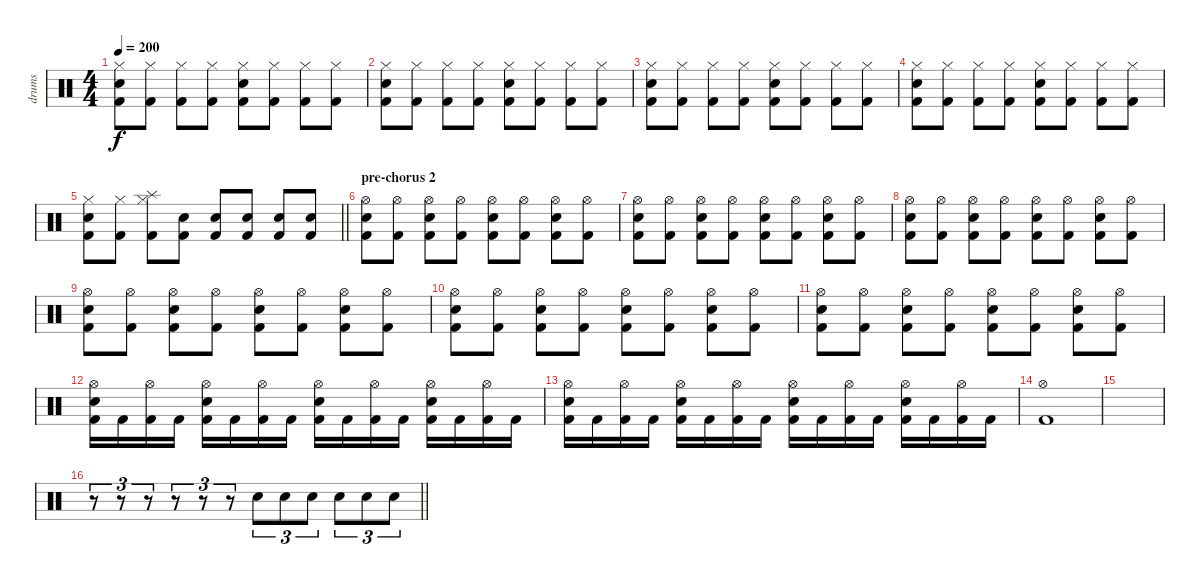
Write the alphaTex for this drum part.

\track ("drums" "drums") {instrument percussion}
\staff {score}
\articulation defaults
\ts (4 4)
\tempo 200
\clef neutral
\ks c
("Hi-Hat (closed)" "Snare (hit) 2" "Kick (hit) 2").8{dy f} ("Hi-Hat (closed)" "Kick (hit) 2").8 ("Hi-Hat (closed)" "Kick (hit) 2").8 ("Hi-Hat (closed)" "Kick (hit) 2").8 ("Hi-Hat (closed)" "Snare (hit) 2" "Kick (hit) 2").8 ("Hi-Hat (closed)" "Kick (hit) 2").8 ("Hi-Hat (closed)" "Kick (hit) 2").8 ("Hi-Hat (closed)" "Kick (hit) 2").8 |
("Hi-Hat (closed)" "Snare (hit) 2" "Kick (hit) 2").8 ("Hi-Hat (closed)" "Kick (hit) 2").8 ("Hi-Hat (closed)" "Kick (hit) 2").8 ("Hi-Hat (closed)" "Kick (hit) 2").8 ("Hi-Hat (closed)" "Snare (hit) 2" "Kick (hit) 2").8 ("Hi-Hat (closed)" "Kick (hit) 2").8 ("Hi-Hat (closed)" "Kick (hit) 2").8 ("Hi-Hat (closed)" "Kick (hit) 2").8 |
("Hi-Hat (closed)" "Snare (hit) 2" "Kick (hit) 2").8 ("Hi-Hat (closed)" "Kick (hit) 2").8 ("Hi-Hat (closed)" "Kick (hit) 2").8 ("Hi-Hat (closed)" "Kick (hit) 2").8 ("Hi-Hat (closed)" "Snare (hit) 2" "Kick (hit) 2").8 ("Hi-Hat (closed)" "Kick (hit) 2").8 ("Hi-Hat (closed)" "Kick (hit) 2").8 ("Hi-Hat (closed)" "Kick (hit) 2").8 |
("Hi-Hat (closed)" "Snare (hit) 2" "Kick (hit) 2").8 ("Hi-Hat (closed)" "Kick (hit) 2").8 ("Hi-Hat (closed)" "Kick (hit) 2").8 ("Hi-Hat (closed)" "Kick (hit) 2").8 ("Hi-Hat (closed)" "Snare (hit) 2" "Kick (hit) 2").8 ("Hi-Hat (closed)" "Kick (hit) 2").8 ("Hi-Hat (closed)" "Kick (hit) 2").8 ("Hi-Hat (closed)" "Kick (hit) 2").8 |
\barLineRight lightlight
("Hi-Hat (closed)" "Snare (hit) 2" "Kick (hit) 2").8 ("Hi-Hat (closed)" "Kick (hit) 2").8 ("Splash (hit)" "Hi-Hat (closed)" "Kick (hit) 2").8 ("Snare (hit) 2" "Kick (hit) 2").8 ("Snare (hit) 2" "Kick (hit) 2").8 ("Snare (hit) 2" "Kick (hit) 2").8 ("Snare (hit) 2" "Kick (hit) 2").8 ("Snare (hit) 2" "Kick (hit) 2").8 |
\section ("" "pre-chorus 2")
("Hi-Hat (open)" "Snare (hit) 2" "Kick (hit) 2").8 ("Hi-Hat (open)" "Kick (hit) 2").8 ("Hi-Hat (open)" "Snare (hit) 2" "Kick (hit) 2").8 ("Hi-Hat (open)" "Kick (hit) 2").8 ("Hi-Hat (open)" "Snare (hit) 2" "Kick (hit) 2").8 ("Hi-Hat (open)" "Kick (hit) 2").8 ("Hi-Hat (open)" "Snare (hit) 2" "Kick (hit) 2").8 ("Hi-Hat (open)" "Kick (hit) 2").8 |
("Hi-Hat (open)" "Snare (hit) 2" "Kick (hit) 2").8 ("Hi-Hat (open)" "Kick (hit) 2").8 ("Hi-Hat (open)" "Snare (hit) 2" "Kick (hit) 2").8 ("Hi-Hat (open)" "Kick (hit) 2").8 ("Hi-Hat (open)" "Snare (hit) 2" "Kick (hit) 2").8 ("Hi-Hat (open)" "Kick (hit) 2").8 ("Hi-Hat (open)" "Snare (hit) 2" "Kick (hit) 2").8 ("Hi-Hat (open)" "Kick (hit) 2").8 |
("Hi-Hat (open)" "Snare (hit) 2" "Kick (hit) 2").8 ("Hi-Hat (open)" "Kick (hit) 2").8 ("Hi-Hat (open)" "Snare (hit) 2" "Kick (hit) 2").8 ("Hi-Hat (open)" "Kick (hit) 2").8 ("Hi-Hat (open)" "Snare (hit) 2" "Kick (hit) 2").8 ("Hi-Hat (open)" "Kick (hit) 2").8 ("Hi-Hat (open)" "Snare (hit) 2" "Kick (hit) 2").8 ("Hi-Hat (open)" "Kick (hit) 2").8 |
("Hi-Hat (open)" "Snare (hit) 2" "Kick (hit) 2").8 ("Hi-Hat (open)" "Kick (hit) 2").8 ("Hi-Hat (open)" "Snare (hit) 2" "Kick (hit) 2").8 ("Hi-Hat (open)" "Kick (hit) 2").8 ("Hi-Hat (open)" "Snare (hit) 2" "Kick (hit) 2").8 ("Hi-Hat (open)" "Kick (hit) 2").8 ("Hi-Hat (open)" "Snare (hit) 2" "Kick (hit) 2").8 ("Hi-Hat (open)" "Kick (hit) 2").8 |
("Hi-Hat (open)" "Snare (hit) 2" "Kick (hit) 2").8 ("Hi-Hat (open)" "Kick (hit) 2").8 ("Hi-Hat (open)" "Snare (hit) 2" "Kick (hit) 2").8 ("Hi-Hat (open)" "Kick (hit) 2").8 ("Hi-Hat (open)" "Snare (hit) 2" "Kick (hit) 2").8 ("Hi-Hat (open)" "Kick (hit) 2").8 ("Hi-Hat (open)" "Snare (hit) 2" "Kick (hit) 2").8 ("Hi-Hat (open)" "Kick (hit) 2").8 |
("Hi-Hat (open)" "Snare (hit) 2" "Kick (hit) 2").8 ("Hi-Hat (open)" "Kick (hit) 2").8 ("Hi-Hat (open)" "Snare (hit) 2" "Kick (hit) 2").8 ("Hi-Hat (open)" "Kick (hit) 2").8 ("Hi-Hat (open)" "Snare (hit) 2" "Kick (hit) 2").8 ("Hi-Hat (open)" "Kick (hit) 2").8 ("Hi-Hat (open)" "Snare (hit) 2" "Kick (hit) 2").8 ("Hi-Hat (open)" "Kick (hit) 2").8 |
("Hi-Hat (open)" "Snare (hit) 2" "Kick (hit) 2").16 "Kick (hit) 2".16 ("Hi-Hat (open)" "Kick (hit) 2").16 "Kick (hit) 2".16 ("Hi-Hat (open)" "Snare (hit) 2" "Kick (hit) 2").16 "Kick (hit) 2".16 ("Hi-Hat (open)" "Kick (hit) 2").16 "Kick (hit) 2".16 ("Hi-Hat (open)" "Snare (hit) 2" "Kick (hit) 2").16 "Kick (hit) 2".16 ("Hi-Hat (open)" "Kick (hit) 2").16 "Kick (hit) 2".16 ("Hi-Hat (open)" "Snare (hit) 2" "Kick (hit) 2").16 "Kick (hit) 2".16 ("Hi-Hat (open)" "Kick (hit) 2").16 "Kick (hit) 2".16 |
("Hi-Hat (open)" "Snare (hit) 2" "Kick (hit) 2").16 "Kick (hit) 2".16 ("Hi-Hat (open)" "Kick (hit) 2").16 "Kick (hit) 2".16 ("Hi-Hat (open)" "Snare (hit) 2" "Kick (hit) 2").16 "Kick (hit) 2".16 ("Hi-Hat (open)" "Kick (hit) 2").16 "Kick (hit) 2".16 ("Hi-Hat (open)" "Snare (hit) 2" "Kick (hit) 2").16 "Kick (hit) 2".16 ("Hi-Hat (open)" "Kick (hit) 2").16 "Kick (hit) 2".16 ("Hi-Hat (open)" "Snare (hit) 2" "Kick (hit) 2").16 "Kick (hit) 2".16 ("Hi-Hat (open)" "Kick (hit) 2").16 "Kick (hit) 2".16 |
("Hi-Hat (open)" "Kick (hit) 2").1 |
|
\barLineRight lightlight
r.8{tu (3 2)} r.8{tu (3 2)} r.8{tu (3 2)} r.8{tu (3 2)} r.8{tu (3 2)} r.8{tu (3 2)} "Snare (hit) 2".8{tu (3 2)} "Snare (hit) 2".8{tu (3 2)} "Snare (hit) 2".8{tu (3 2)} "Snare (hit) 2".8{tu (3 2)} "Snare (hit) 2".8{tu (3 2)} "Snare (hit) 2".8{tu (3 2)}
